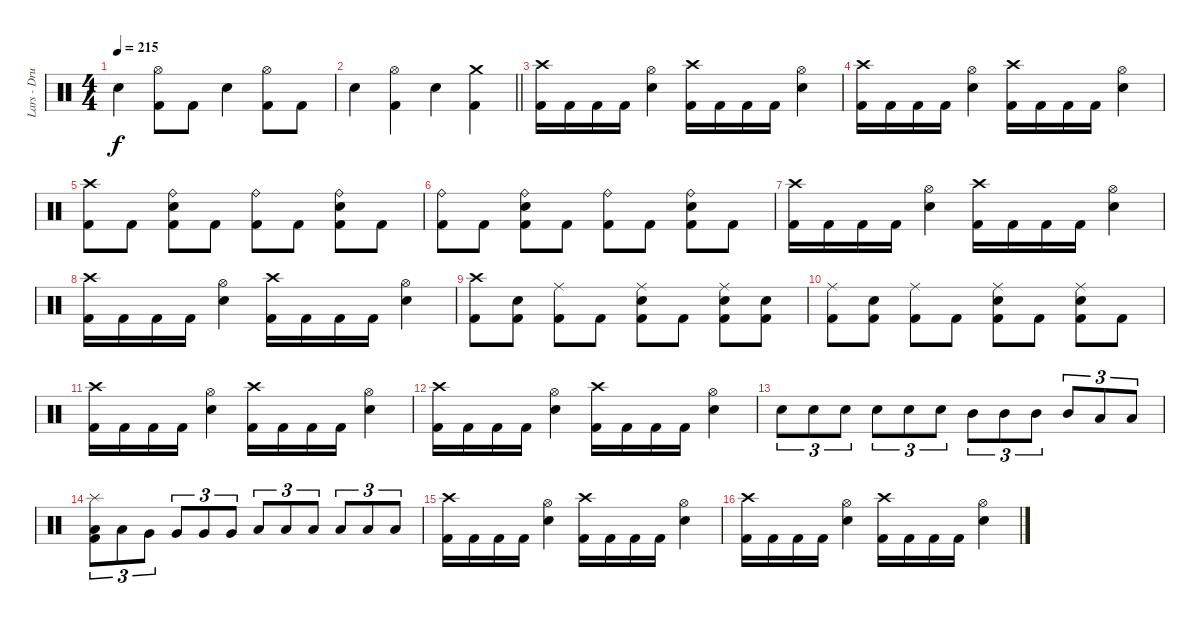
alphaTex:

\track ("Lars - Drums" "Lars - Dru") {instrument percussion}
\staff {score}
\articulation defaults
\ts (4 4)
\tempo 215
\clef neutral
\ks c "Electric Snare (hit)".4{dy f}
("Kick (hit) 2" "Hi-Hat (open)").8 "Kick (hit) 2".8 "Electric Snare (hit)".4 ("Kick (hit) 2" "Hi-Hat (open)").8 "Kick (hit) 2".8 |
\barLineRight lightlight "Electric Snare (hit)".4
("Kick (hit) 2" "Hi-Hat (open)").4 "Electric Snare (hit)".4 ("Kick (hit) 2" "Crash medium (hit)").4 |
\section ("" "")
("Kick (hit) 2" "Crash high (hit)").16 "Kick (hit) 2".16 "Kick (hit) 2".16 "Kick (hit) 2".16 ("Electric Snare (hit)" "Hi-Hat (open)").4 ("Kick (hit) 2" "Crash high (hit)").16 "Kick (hit) 2".16 "Kick (hit) 2".16 "Kick (hit) 2".16 ("Electric Snare (hit)" "Hi-Hat (open)").4 |
("Kick (hit) 2" "Crash high (hit)").16 "Kick (hit) 2".16 "Kick (hit) 2".16 "Kick (hit) 2".16 ("Electric Snare (hit)" "Hi-Hat (open)").4 ("Kick (hit) 2" "Crash high (hit)").16 "Kick (hit) 2".16 "Kick (hit) 2".16 "Kick (hit) 2".16 ("Electric Snare (hit)" "Hi-Hat (open)").4 |
("Kick (hit) 2" "Crash high (hit)").8 "Kick (hit) 2".8 ("Kick (hit) 2" "Electric Snare (hit)" "Ride (bell)").8 "Kick (hit) 2".8 ("Kick (hit) 2" "Ride (bell)").8 "Kick (hit) 2".8 ("Kick (hit) 2" "Electric Snare (hit)" "Ride (bell)").8 "Kick (hit) 2".8 |
("Kick (hit) 2" "Ride (bell)").8 "Kick (hit) 2".8 ("Kick (hit) 2" "Electric Snare (hit)" "Ride (bell)").8 "Kick (hit) 2".8 ("Kick (hit) 2" "Ride (bell)").8 "Kick (hit) 2".8 ("Kick (hit) 2" "Electric Snare (hit)" "Ride (bell)").8 "Kick (hit) 2".8 |
("Kick (hit) 2" "Crash high (hit)").16 "Kick (hit) 2".16 "Kick (hit) 2".16 "Kick (hit) 2".16 ("Electric Snare (hit)" "Hi-Hat (open)").4 ("Kick (hit) 2" "Crash high (hit)").16 "Kick (hit) 2".16 "Kick (hit) 2".16 "Kick (hit) 2".16 ("Electric Snare (hit)" "Hi-Hat (open)").4 |
("Kick (hit) 2" "Crash high (hit)").16 "Kick (hit) 2".16 "Kick (hit) 2".16 "Kick (hit) 2".16 ("Electric Snare (hit)" "Hi-Hat (open)").4 ("Kick (hit) 2" "Crash high (hit)").16 "Kick (hit) 2".16 "Kick (hit) 2".16 "Kick (hit) 2".16 ("Electric Snare (hit)" "Hi-Hat (open)").4 |
("Kick (hit) 2" "Crash high (hit)").8 ("Kick (hit) 2" "Electric Snare (hit)").8 ("Kick (hit) 2" "Ride (middle)").8 "Kick (hit) 2".8 ("Kick (hit) 2" "Electric Snare (hit)" "Ride (middle)").8 "Kick (hit) 2".8 ("Kick (hit) 2" "Electric Snare (hit)" "Ride (middle)").8 ("Kick (hit) 2" "Electric Snare (hit)").8 |
("Kick (hit) 2" "Ride (middle)").8 ("Kick (hit) 2" "Electric Snare (hit)").8 ("Kick (hit) 2" "Ride (middle)").8 "Kick (hit) 2".8 ("Kick (hit) 2" "Electric Snare (hit)" "Ride (middle)").8 "Kick (hit) 2".8 ("Kick (hit) 2" "Electric Snare (hit)" "Ride (middle)").8 "Kick (hit) 2".8 |
("Kick (hit) 2" "Crash high (hit)").16 "Kick (hit) 2".16 "Kick (hit) 2".16 "Kick (hit) 2".16 ("Electric Snare (hit)" "Hi-Hat (open)").4 ("Kick (hit) 2" "Crash high (hit)").16 "Kick (hit) 2".16 "Kick (hit) 2".16 "Kick (hit) 2".16 ("Electric Snare (hit)" "Hi-Hat (open)").4 |
("Kick (hit) 2" "Crash high (hit)").16 "Kick (hit) 2".16 "Kick (hit) 2".16 "Kick (hit) 2".16 ("Electric Snare (hit)" "Hi-Hat (open)").4 ("Kick (hit) 2" "Crash high (hit)").16 "Kick (hit) 2".16 "Kick (hit) 2".16 "Kick (hit) 2".16 ("Electric Snare (hit)" "Hi-Hat (open)").4 |
"Electric Snare (hit)".8{tu (3 2)} "Electric Snare (hit)".8{tu (3 2)} "Electric Snare (hit)".8{tu (3 2)} "Electric Snare (hit)".8{tu (3 2)} "Electric Snare (hit)".8{tu (3 2)} "Electric Snare (hit)".8{tu (3 2)} "Mid Tom (hit)".8{tu (3 2)} "Mid Tom (hit)".8{tu (3 2)} "Mid Tom (hit)".8{tu (3 2)} "Mid Tom (hit)".8{tu (3 2)} "Low Tom (hit)".8{tu (3 2)} "Low Tom (hit)".8{tu (3 2)} |
("Low Tom (hit)" "Kick (hit) 2" "Splash (hit)").8{tu (3 2)} "Low Tom (hit)".8{tu (3 2)} "Very Low Tom (hit)".8{tu (3 2)} "Very Low Tom (hit)".8{tu (3 2)} "Very Low Tom (hit)".8{tu (3 2)} "Very Low Tom (hit)".8{tu (3 2)} "Low Floor Tom (hit)".8{tu (3 2)} "Low Floor Tom (hit)".8{tu (3 2)} "Low Floor Tom (hit)".8{tu (3 2)} "Low Floor Tom (hit)".8{tu (3 2)} "Low Floor Tom (hit)".8{tu (3 2)} "Low Floor Tom (hit)".8{tu (3 2)} |
("Kick (hit) 2" "Crash high (hit)").16 "Kick (hit) 2".16 "Kick (hit) 2".16 "Kick (hit) 2".16 ("Electric Snare (hit)" "Hi-Hat (open)").4 ("Kick (hit) 2" "Crash high (hit)").16 "Kick (hit) 2".16 "Kick (hit) 2".16 "Kick (hit) 2".16 ("Electric Snare (hit)" "Hi-Hat (open)").4 |
("Kick (hit) 2" "Crash high (hit)").16 "Kick (hit) 2".16 "Kick (hit) 2".16 "Kick (hit) 2".16 ("Electric Snare (hit)" "Hi-Hat (open)").4 ("Kick (hit) 2" "Crash high (hit)").16 "Kick (hit) 2".16 "Kick (hit) 2".16 "Kick (hit) 2".16 ("Electric Snare (hit)" "Hi-Hat (open)").4
